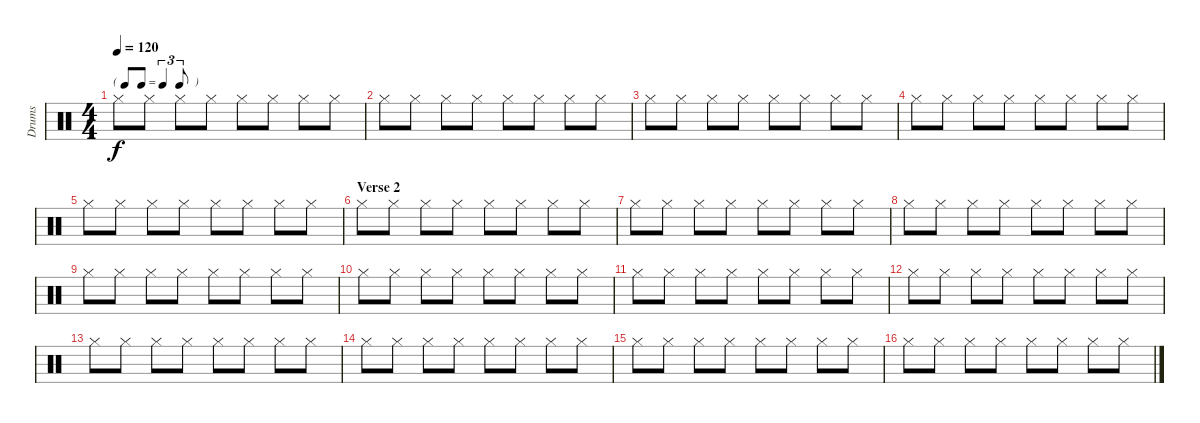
\track ("Drums" "Drums") {instrument percussion}
\staff {score}
\articulation defaults
\ts (4 4)
\tf triplet8th
\tempo 120
\clef neutral
\ks c "Hi-Hat (closed)".8{dy f} "Hi-Hat (closed)".8 "Hi-Hat (closed)".8 "Hi-Hat (closed)".8 "Hi-Hat (closed)".8 "Hi-Hat (closed)".8 "Hi-Hat (closed)".8 "Hi-Hat (closed)".8
|
"Hi-Hat (closed)".8 "Hi-Hat (closed)".8 "Hi-Hat (closed)".8 "Hi-Hat (closed)".8 "Hi-Hat (closed)".8 "Hi-Hat (closed)".8 "Hi-Hat (closed)".8 "Hi-Hat (closed)".8 |
"Hi-Hat (closed)".8 "Hi-Hat (closed)".8 "Hi-Hat (closed)".8 "Hi-Hat (closed)".8 "Hi-Hat (closed)".8 "Hi-Hat (closed)".8 "Hi-Hat (closed)".8 "Hi-Hat (closed)".8 |
"Hi-Hat (closed)".8 "Hi-Hat (closed)".8 "Hi-Hat (closed)".8 "Hi-Hat (closed)".8 "Hi-Hat (closed)".8 "Hi-Hat (closed)".8 "Hi-Hat (closed)".8 "Hi-Hat (closed)".8 |
"Hi-Hat (closed)".8 "Hi-Hat (closed)".8 "Hi-Hat (closed)".8 "Hi-Hat (closed)".8 "Hi-Hat (closed)".8 "Hi-Hat (closed)".8 "Hi-Hat (closed)".8 "Hi-Hat (closed)".8 |
\section ("" "Verse 2")
"Hi-Hat (closed)".8 "Hi-Hat (closed)".8 "Hi-Hat (closed)".8 "Hi-Hat (closed)".8 "Hi-Hat (closed)".8 "Hi-Hat (closed)".8 "Hi-Hat (closed)".8 "Hi-Hat (closed)".8 |
"Hi-Hat (closed)".8 "Hi-Hat (closed)".8 "Hi-Hat (closed)".8 "Hi-Hat (closed)".8 "Hi-Hat (closed)".8 "Hi-Hat (closed)".8 "Hi-Hat (closed)".8 "Hi-Hat (closed)".8 |
"Hi-Hat (closed)".8 "Hi-Hat (closed)".8 "Hi-Hat (closed)".8 "Hi-Hat (closed)".8 "Hi-Hat (closed)".8 "Hi-Hat (closed)".8 "Hi-Hat (closed)".8 "Hi-Hat (closed)".8 |
"Hi-Hat (closed)".8 "Hi-Hat (closed)".8 "Hi-Hat (closed)".8 "Hi-Hat (closed)".8 "Hi-Hat (closed)".8 "Hi-Hat (closed)".8 "Hi-Hat (closed)".8 "Hi-Hat (closed)".8 |
"Hi-Hat (closed)".8 "Hi-Hat (closed)".8 "Hi-Hat (closed)".8 "Hi-Hat (closed)".8 "Hi-Hat (closed)".8 "Hi-Hat (closed)".8 "Hi-Hat (closed)".8 "Hi-Hat (closed)".8 |
"Hi-Hat (closed)".8 "Hi-Hat (closed)".8 "Hi-Hat (closed)".8 "Hi-Hat (closed)".8 "Hi-Hat (closed)".8 "Hi-Hat (closed)".8 "Hi-Hat (closed)".8 "Hi-Hat (closed)".8 |
"Hi-Hat (closed)".8 "Hi-Hat (closed)".8 "Hi-Hat (closed)".8 "Hi-Hat (closed)".8 "Hi-Hat (closed)".8 "Hi-Hat (closed)".8 "Hi-Hat (closed)".8 "Hi-Hat (closed)".8 |
"Hi-Hat (closed)".8 "Hi-Hat (closed)".8 "Hi-Hat (closed)".8 "Hi-Hat (closed)".8 "Hi-Hat (closed)".8 "Hi-Hat (closed)".8 "Hi-Hat (closed)".8 "Hi-Hat (closed)".8 |
"Hi-Hat (closed)".8 "Hi-Hat (closed)".8 "Hi-Hat (closed)".8 "Hi-Hat (closed)".8 "Hi-Hat (closed)".8 "Hi-Hat (closed)".8 "Hi-Hat (closed)".8 "Hi-Hat (closed)".8 |
"Hi-Hat (closed)".8 "Hi-Hat (closed)".8 "Hi-Hat (closed)".8 "Hi-Hat (closed)".8 "Hi-Hat (closed)".8 "Hi-Hat (closed)".8 "Hi-Hat (closed)".8 "Hi-Hat (closed)".8 |
"Hi-Hat (closed)".8 "Hi-Hat (closed)".8 "Hi-Hat (closed)".8 "Hi-Hat (closed)".8 "Hi-Hat (closed)".8 "Hi-Hat (closed)".8 "Hi-Hat (closed)".8 "Hi-Hat (closed)".8
